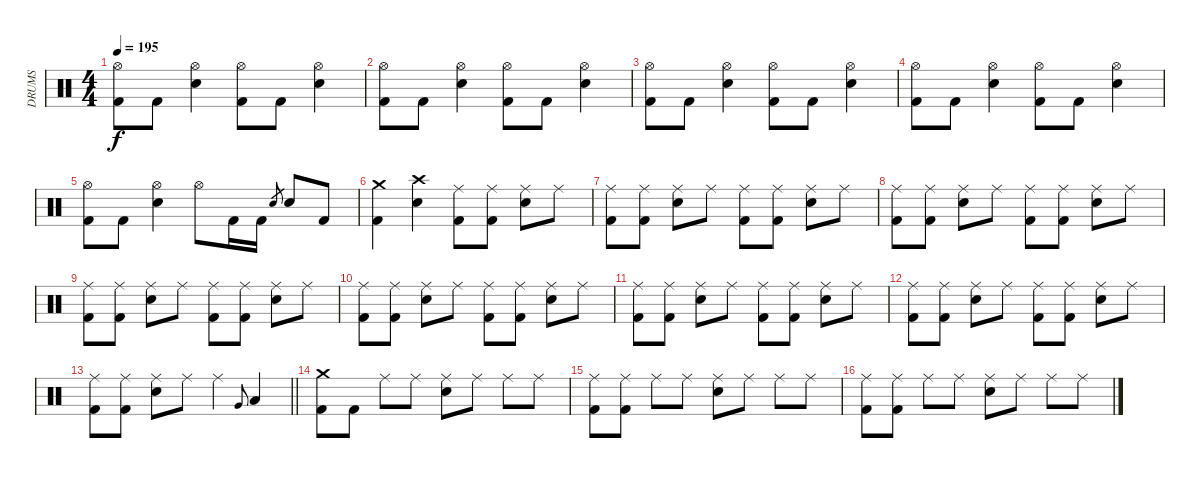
\track ("DRUMS" "DRUMS") {instrument percussion}
\staff {score}
\articulation defaults
\ts (4 4)
\tempo 195
\clef neutral
\ks c
("Hi-Hat (open)" "Kick (hit) 2").8{dy f} "Kick (hit) 2".8 ("Hi-Hat (open)" "Snare (hit) 2").4 ("Hi-Hat (open)" "Kick (hit) 2").8 "Kick (hit) 2".8 ("Hi-Hat (open)" "Snare (hit) 2").4 |
("Hi-Hat (open)" "Kick (hit) 2").8 "Kick (hit) 2".8 ("Hi-Hat (open)" "Snare (hit) 2").4 ("Hi-Hat (open)" "Kick (hit) 2").8 "Kick (hit) 2".8 ("Hi-Hat (open)" "Snare (hit) 2").4 |
("Hi-Hat (open)" "Kick (hit) 2").8 "Kick (hit) 2".8 ("Hi-Hat (open)" "Snare (hit) 2").4 ("Hi-Hat (open)" "Kick (hit) 2").8 "Kick (hit) 2".8 ("Hi-Hat (open)" "Snare (hit) 2").4 |
("Hi-Hat (open)" "Kick (hit) 2").8 "Kick (hit) 2".8 ("Hi-Hat (open)" "Snare (hit) 2").4 ("Hi-Hat (open)" "Kick (hit) 2").8 "Kick (hit) 2".8 ("Hi-Hat (open)" "Snare (hit) 2").4 |
("Hi-Hat (open)" "Kick (hit) 2").8 "Kick (hit) 2".8 ("Hi-Hat (open)" "Snare (hit) 2").4 "Hi-Hat (open)".8 "Kick (hit) 2".16 "Kick (hit) 2".16 "Snare (hit) 2".8{gr} "Snare (hit) 2".8 "Kick (hit) 2".8 |
("Crash medium (hit)" "Kick (hit) 2").4 ("Crash high (hit)" "Snare (hit) 2").4 ("Ride (middle)" "Kick (hit) 2").8 ("Ride (middle)" "Kick (hit) 2").8 ("Ride (middle)" "Snare (hit) 2").8 "Ride (middle)".8 |
("Ride (middle)" "Kick (hit) 2").8 ("Ride (middle)" "Kick (hit) 2").8 ("Ride (middle)" "Snare (hit) 2").8 "Ride (middle)".8 ("Ride (middle)" "Kick (hit) 2").8 ("Ride (middle)" "Kick (hit) 2").8 ("Ride (middle)" "Snare (hit) 2").8 "Ride (middle)".8 |
("Ride (middle)" "Kick (hit) 2").8 ("Ride (middle)" "Kick (hit) 2").8 ("Ride (middle)" "Snare (hit) 2").8 "Ride (middle)".8 ("Ride (middle)" "Kick (hit) 2").8 ("Ride (middle)" "Kick (hit) 2").8 ("Ride (middle)" "Snare (hit) 2").8 "Ride (middle)".8 |
("Ride (middle)" "Kick (hit) 2").8 ("Ride (middle)" "Kick (hit) 2").8 ("Ride (middle)" "Snare (hit) 2").8 "Ride (middle)".8 ("Ride (middle)" "Kick (hit) 2").8 ("Ride (middle)" "Kick (hit) 2").8 ("Ride (middle)" "Snare (hit) 2").8 "Ride (middle)".8 |
("Ride (middle)" "Kick (hit) 2").8 ("Ride (middle)" "Kick (hit) 2").8 ("Ride (middle)" "Snare (hit) 2").8 "Ride (middle)".8 ("Ride (middle)" "Kick (hit) 2").8 ("Ride (middle)" "Kick (hit) 2").8 ("Ride (middle)" "Snare (hit) 2").8 "Ride (middle)".8 |
("Ride (middle)" "Kick (hit) 2").8 ("Ride (middle)" "Kick (hit) 2").8 ("Ride (middle)" "Snare (hit) 2").8 "Ride (middle)".8 ("Ride (middle)" "Kick (hit) 2").8 ("Ride (middle)" "Kick (hit) 2").8 ("Ride (middle)" "Snare (hit) 2").8 "Ride (middle)".8 |
("Ride (middle)" "Kick (hit) 2").8 ("Ride (middle)" "Kick (hit) 2").8 ("Ride (middle)" "Snare (hit) 2").8 "Ride (middle)".8 ("Ride (middle)" "Kick (hit) 2").8 ("Ride (middle)" "Kick (hit) 2").8 ("Ride (middle)" "Snare (hit) 2").8 "Ride (middle)".8 |
\barLineRight lightlight
("Ride (middle)" "Kick (hit) 2").8 ("Ride (middle)" "Kick (hit) 2").8 ("Ride (middle)" "Snare (hit) 2").8 "Ride (middle)".8 "Ride (middle)".4 "Very Low Tom (hit)".8{gr onbeat} "Low Floor Tom (hit)".4 |
("Crash medium (hit)" "Kick (hit) 2").8 "Kick (hit) 2".8 "Ride (middle)".8 "Ride (middle)".8 ("Ride (middle)" "Snare (hit) 2").8 "Ride (middle)".8 "Ride (middle)".8 "Ride (middle)".8 |
("Ride (middle)" "Kick (hit) 2").8 ("Ride (middle)" "Kick (hit) 2").8 "Ride (middle)".8 "Ride (middle)".8 ("Ride (middle)" "Snare (hit) 2").8 "Ride (middle)".8 "Ride (middle)".8 "Ride (middle)".8 |
("Ride (middle)" "Kick (hit) 2").8 ("Ride (middle)" "Kick (hit) 2").8 "Ride (middle)".8 "Ride (middle)".8 ("Ride (middle)" "Snare (hit) 2").8 "Ride (middle)".8 "Ride (middle)".8 "Ride (middle)".8
